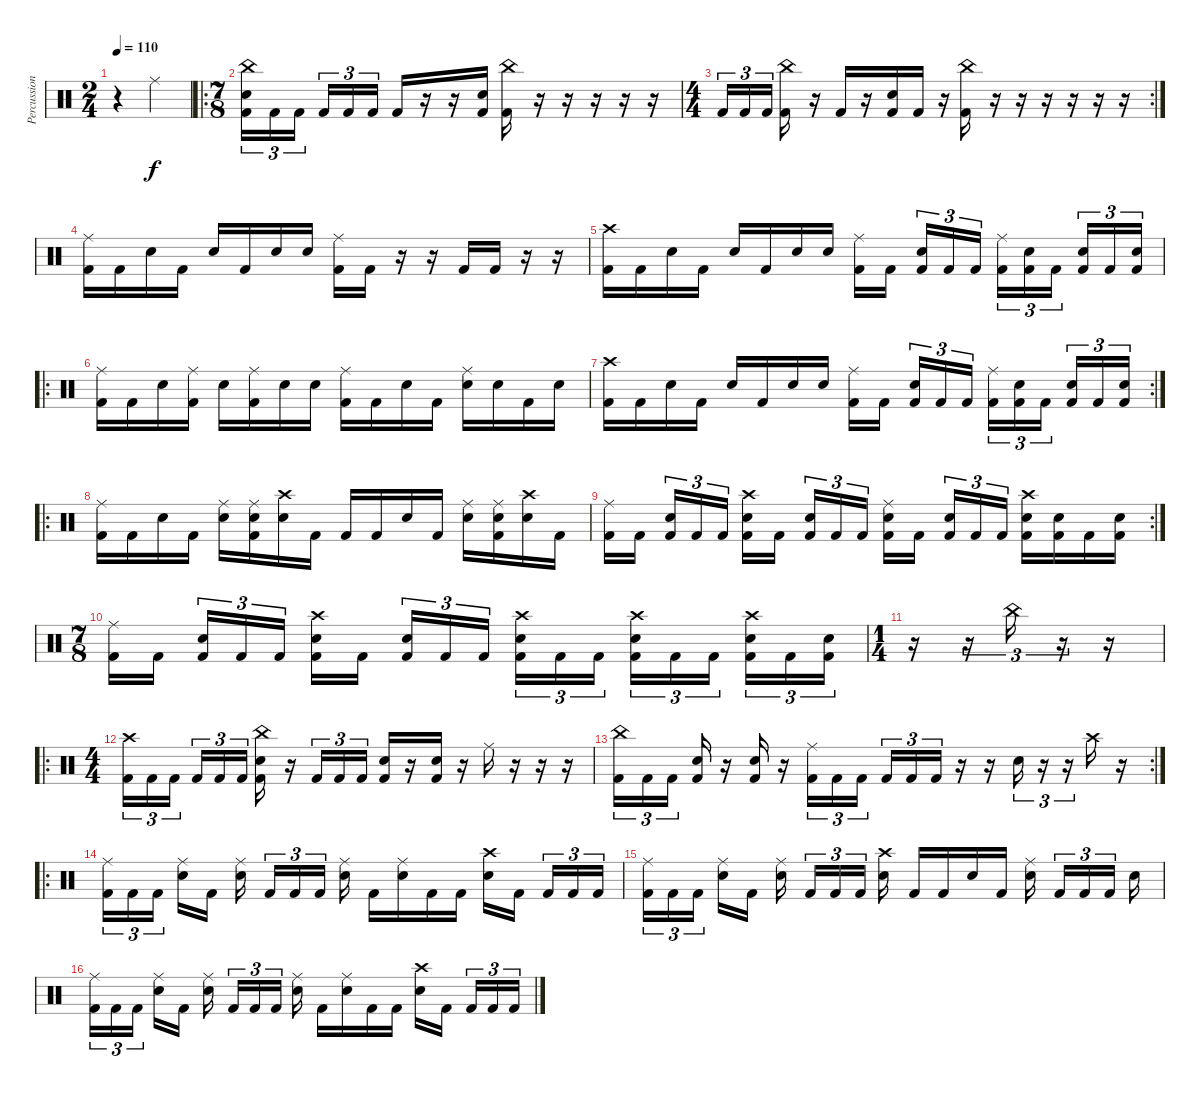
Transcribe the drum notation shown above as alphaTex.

\track ("Percussion" "Percussion") {instrument percussion}
\staff {score}
\articulation defaults
\ts (2 4)
\tempo 110
\clef neutral
\ks c
r.4{dy f} "Ride (middle)".4 |
\ro
\ts (7 8)
("China (hit)" "Snare (hit) 2" "Kick (hit) 2").16{tu (3 2)} "Kick (hit) 2".16{tu (3 2)} "Kick (hit) 2".16{tu (3 2)} "Kick (hit) 2".16{tu (3 2)} "Kick (hit) 2".16{tu (3 2)} "Kick (hit) 2".16{tu (3 2)} "Kick (hit) 2".16 r.16 r.16 ("Snare (hit) 2" "Kick (hit) 2").16 ("China (hit)" "Kick (hit) 2").16 r.16 r.16 r.16 r.16 r.16 |
\rc 2
\ts (4 4)
"Kick (hit) 2".16{tu (3 2)} "Kick (hit) 2".16{tu (3 2)} "Kick (hit) 2".16{tu (3 2) beam splitsecondary} ("China (hit)" "Kick (hit) 2").16 r.16 "Kick (hit) 2".16 r.16 ("Snare (hit) 2" "Kick (hit) 2").16 "Kick (hit) 2".16 r.16 ("China (hit)" "Kick (hit) 2").16 r.16 r.16 r.16 r.16 r.16 r.16 |
("Ride (middle)" "Kick (hit) 2").16 "Kick (hit) 2".16 "Snare (hit) 2".16 "Kick (hit) 2".16 "Snare (hit) 2".16 "Kick (hit) 2".16 "Snare (hit) 2".16 "Snare (hit) 2".16 ("Ride (middle)" "Kick (hit) 2").16 "Kick (hit) 2".16 r.16 r.16 "Kick (hit) 2".16 "Kick (hit) 2".16 r.16 r.16 |
("Crash high (hit)" "Kick (hit) 2").16 "Kick (hit) 2".16 "Snare (hit) 2".16 "Kick (hit) 2".16 "Snare (hit) 2".16 "Kick (hit) 2".16 "Snare (hit) 2".16 "Snare (hit) 2".16 ("Ride (middle)" "Kick (hit) 2").16 "Kick (hit) 2".16{beam splitsecondary} ("Snare (hit) 2" "Kick (hit) 2").16{tu (3 2)} "Kick (hit) 2".16{tu (3 2)} "Kick (hit) 2".16{tu (3 2)} ("Ride (middle)" "Kick (hit) 2").16{tu (3 2)} ("Snare (hit) 2" "Kick (hit) 2").16{tu (3 2)} "Kick (hit) 2".16{tu (3 2) beam splitsecondary} ("Snare (hit) 2" "Kick (hit) 2").16{tu (3 2)} "Kick (hit) 2".16{tu (3 2)} ("Snare (hit) 2" "Kick (hit) 2").16{tu (3 2)} |
\ro
("Ride (middle)" "Kick (hit) 2").16 "Kick (hit) 2".16 "Snare (hit) 2".16 ("Ride (middle)" "Kick (hit) 2").16 "Snare (hit) 2".16 ("Ride (middle)" "Kick (hit) 2").16 "Snare (hit) 2".16 "Snare (hit) 2".16 ("Ride (middle)" "Kick (hit) 2").16 "Kick (hit) 2".16 "Snare (hit) 2".16 "Kick (hit) 2".16 ("Ride (middle)" "Snare (hit) 2").16 "Snare (hit) 2".16 "Kick (hit) 2".16 "Snare (hit) 2".16 |
\rc 2
("Crash high (hit)" "Kick (hit) 2").16 "Kick (hit) 2".16 "Snare (hit) 2".16 "Kick (hit) 2".16 "Snare (hit) 2".16 "Kick (hit) 2".16 "Snare (hit) 2".16 "Snare (hit) 2".16 ("Ride (middle)" "Kick (hit) 2").16 "Kick (hit) 2".16{beam splitsecondary} ("Snare (hit) 2" "Kick (hit) 2").16{tu (3 2)} "Kick (hit) 2".16{tu (3 2)} "Kick (hit) 2".16{tu (3 2)} ("Ride (middle)" "Kick (hit) 2").16{tu (3 2)} ("Snare (hit) 2" "Kick (hit) 2").16{tu (3 2)} "Kick (hit) 2".16{tu (3 2) beam splitsecondary} ("Snare (hit) 2" "Kick (hit) 2").16{tu (3 2)} "Kick (hit) 2".16{tu (3 2)} ("Snare (hit) 2" "Kick (hit) 2").16{tu (3 2)} |
\ro
("Ride (middle)" "Kick (hit) 2").16 "Kick (hit) 2".16 "Snare (hit) 2".16 "Kick (hit) 2".16 ("Ride (middle)" "Snare (hit) 2").16 ("Ride (middle)" "Snare (hit) 2" "Kick (hit) 2").16 ("Crash high (hit)" "Snare (hit) 2").16 "Kick (hit) 2".16 "Kick (hit) 2".16 "Kick (hit) 2".16 "Snare (hit) 2".16 "Kick (hit) 2".16 ("Ride (middle)" "Snare (hit) 2").16 ("Ride (middle)" "Snare (hit) 2" "Kick (hit) 2").16 ("Crash high (hit)" "Snare (hit) 2").16 "Kick (hit) 2".16 |
\rc 2
("Ride (middle)" "Kick (hit) 2").16 "Kick (hit) 2".16{beam splitsecondary} ("Snare (hit) 2" "Kick (hit) 2").16{tu (3 2)} "Kick (hit) 2".16{tu (3 2)} "Kick (hit) 2".16{tu (3 2)} ("Crash high (hit)" "Snare (hit) 2" "Kick (hit) 2").16 "Kick (hit) 2".16{beam splitsecondary} ("Snare (hit) 2" "Kick (hit) 2").16{tu (3 2)} "Kick (hit) 2".16{tu (3 2)} "Kick (hit) 2".16{tu (3 2)} ("Ride (middle)" "Snare (hit) 2" "Kick (hit) 2").16 "Kick (hit) 2".16{beam splitsecondary} ("Snare (hit) 2" "Kick (hit) 2").16{tu (3 2)} "Kick (hit) 2".16{tu (3 2)} "Kick (hit) 2".16{tu (3 2)} ("Crash high (hit)" "Snare (hit) 2" "Kick (hit) 2").16 ("Snare (hit) 2" "Kick (hit) 2").16 "Kick (hit) 2".16 ("Snare (hit) 2" "Kick (hit) 2").16 |
\ts (7 8)
("Ride (middle)" "Kick (hit) 2").16 "Kick (hit) 2".16 ("Snare (hit) 2" "Kick (hit) 2").16{tu (3 2)} "Kick (hit) 2".16{tu (3 2)} "Kick (hit) 2".16{tu (3 2)} ("Crash high (hit)" "Snare (hit) 2" "Kick (hit) 2").16 "Kick (hit) 2".16 ("Snare (hit) 2" "Kick (hit) 2").16{tu (3 2)} "Kick (hit) 2".16{tu (3 2)} "Kick (hit) 2".16{tu (3 2)} ("Crash high (hit)" "Snare (hit) 2" "Kick (hit) 2").16{tu (3 2)} "Kick (hit) 2".16{tu (3 2)} "Kick (hit) 2".16{tu (3 2)} ("Crash high (hit)" "Snare (hit) 2" "Kick (hit) 2").16{tu (3 2)} "Kick (hit) 2".16{tu (3 2)} "Kick (hit) 2".16{tu (3 2)} ("Crash high (hit)" "Snare (hit) 2" "Kick (hit) 2").16{tu (3 2)} "Kick (hit) 2".16{tu (3 2)} ("Snare (hit) 2" "Kick (hit) 2").16{tu (3 2)} |
\ts (1 4)
r.16 r.16{tu (3 2)} "China (hit)".16{tu (3 2)} r.16{tu (3 2)} r.16 |
\ro
\ts (4 4)
("Crash high (hit)" "Kick (hit) 2").16{tu (3 2)} "Kick (hit) 2".16{tu (3 2)} "Kick (hit) 2".16{tu (3 2) beam splitsecondary} "Kick (hit) 2".16{tu (3 2)} "Kick (hit) 2".16{tu (3 2)} "Kick (hit) 2".16{tu (3 2)} ("China (hit)" "Snare (hit) 2" "Kick (hit) 2").16 r.16 "Kick (hit) 2".16{tu (3 2)} "Kick (hit) 2".16{tu (3 2)} "Kick (hit) 2".16{tu (3 2)} ("Snare (hit) 2" "Kick (hit) 2").16 r.16 ("Snare (hit) 2" "Kick (hit) 2").16 r.16 "Ride (middle)".16 r.16 r.16 r.16 |
\rc 2
("China (hit)" "Kick (hit) 2").16{tu (3 2)} "Kick (hit) 2".16{tu (3 2)} "Kick (hit) 2".16{tu (3 2) beam splitsecondary} ("Snare (hit) 2" "Kick (hit) 2").16 r.16 ("Snare (hit) 2" "Kick (hit) 2").16 r.16 ("Ride (middle)" "Kick (hit) 2").16{tu (3 2)} "Kick (hit) 2".16{tu (3 2)} "Kick (hit) 2".16{tu (3 2)} "Kick (hit) 2".16{tu (3 2)} "Kick (hit) 2".16{tu (3 2)} "Kick (hit) 2".16{tu (3 2)} r.16 r.16 "Snare (hit) 2".16{tu (3 2)} r.16{tu (3 2)} r.16{tu (3 2)} "Crash high (hit)".16 r.16 |
\ro
("Ride (middle)" "Kick (hit) 2").16{tu (3 2)} "Kick (hit) 2".16{tu (3 2)} "Kick (hit) 2".16{tu (3 2) beam splitsecondary} ("Ride (middle)" "Snare (hit) 2").16 "Kick (hit) 2".16 ("Ride (middle)" "Snare (hit) 2").16{beam splitsecondary} "Kick (hit) 2".16{tu (3 2)} "Kick (hit) 2".16{tu (3 2)} "Kick (hit) 2".16{tu (3 2) beam splitsecondary} ("Ride (middle)" "Snare (hit) 2").16 "Kick (hit) 2".16 ("Ride (middle)" "Snare (hit) 2").16 "Kick (hit) 2".16 "Kick (hit) 2".16 ("Crash high (hit)" "Snare (hit) 2").16 "Kick (hit) 2".16{beam splitsecondary} "Kick (hit) 2".16{tu (3 2)} "Kick (hit) 2".16{tu (3 2)} "Kick (hit) 2".16{tu (3 2)} |
("Ride (middle)" "Kick (hit) 2").16{tu (3 2)} "Kick (hit) 2".16{tu (3 2)} "Kick (hit) 2".16{tu (3 2) beam splitsecondary} ("Ride (middle)" "Snare (hit) 2").16 "Kick (hit) 2".16 ("Ride (middle)" "Snare (hit) 2").16{beam splitsecondary} "Kick (hit) 2".16{tu (3 2)} "Kick (hit) 2".16{tu (3 2)} "Kick (hit) 2".16{tu (3 2) beam splitsecondary} ("Crash high (hit)" "Snare (hit) 2").16 "Kick (hit) 2".16 "Kick (hit) 2".16 "Snare (hit) 2".16 "Kick (hit) 2".16 ("Ride (middle)" "Snare (hit) 2").16{beam splitsecondary} "Kick (hit) 2".16{tu (3 2)} "Kick (hit) 2".16{tu (3 2)} "Kick (hit) 2".16{tu (3 2) beam splitsecondary} "Snare (hit) 2".16 |
("Ride (middle)" "Kick (hit) 2").16{tu (3 2)} "Kick (hit) 2".16{tu (3 2)} "Kick (hit) 2".16{tu (3 2) beam splitsecondary} ("Ride (middle)" "Snare (hit) 2").16 "Kick (hit) 2".16 ("Ride (middle)" "Snare (hit) 2").16{beam splitsecondary} "Kick (hit) 2".16{tu (3 2)} "Kick (hit) 2".16{tu (3 2)} "Kick (hit) 2".16{tu (3 2) beam splitsecondary} ("Ride (middle)" "Snare (hit) 2").16 "Kick (hit) 2".16 ("Ride (middle)" "Snare (hit) 2").16 "Kick (hit) 2".16 "Kick (hit) 2".16 ("Crash high (hit)" "Snare (hit) 2").16 "Kick (hit) 2".16{beam splitsecondary} "Kick (hit) 2".16{tu (3 2)} "Kick (hit) 2".16{tu (3 2)} "Kick (hit) 2".16{tu (3 2)}
